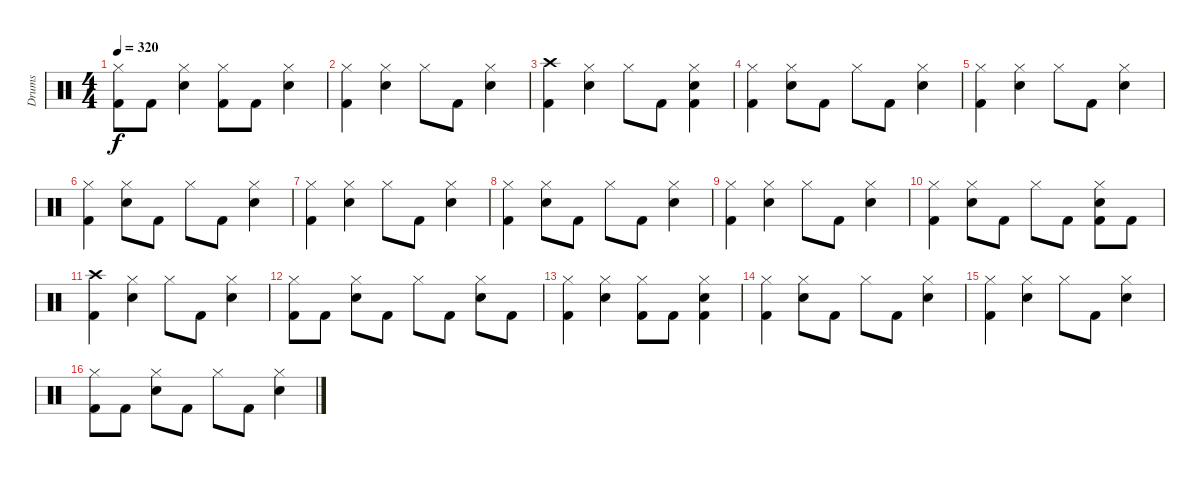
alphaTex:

\track ("Drums" "Drums") {instrument percussion}
\staff {score}
\articulation defaults
\ts (4 4)
\tempo 320
\clef neutral
\ks c
("Hi-Hat (closed)" "Kick (hit) 2").8{dy f} "Kick (hit) 2".8 ("Hi-Hat (closed)" "Snare (hit) 2").4 ("Hi-Hat (closed)" "Kick (hit) 2").8 "Kick (hit) 2".8 ("Hi-Hat (closed)" "Snare (hit) 2").4 |
("Hi-Hat (closed)" "Kick (hit) 2").4 ("Hi-Hat (closed)" "Snare (hit) 2").4 "Hi-Hat (closed)".8 "Kick (hit) 2".8 ("Snare (hit) 2" "Hi-Hat (closed)").4 |
("Kick (hit) 2" "Crash high (hit)").4 ("Snare (hit) 2" "Hi-Hat (closed)").4 "Hi-Hat (closed)".8 "Kick (hit) 2".8 ("Hi-Hat (closed)" "Kick (hit) 2" "Snare (hit) 2").4 |
("Kick (hit) 2" "Hi-Hat (closed)").4 ("Snare (hit) 2" "Hi-Hat (closed)").8 "Kick (hit) 2".8 "Hi-Hat (closed)".8 "Kick (hit) 2".8 ("Hi-Hat (closed)" "Snare (hit) 2").4 |
("Kick (hit) 2" "Hi-Hat (closed)").4 ("Snare (hit) 2" "Hi-Hat (closed)").4 "Hi-Hat (closed)".8 "Kick (hit) 2".8 ("Hi-Hat (closed)" "Snare (hit) 2").4 |
("Kick (hit) 2" "Hi-Hat (closed)").4 ("Hi-Hat (closed)" "Snare (hit) 2").8 "Kick (hit) 2".8 "Hi-Hat (closed)".8 "Kick (hit) 2".8 ("Snare (hit) 2" "Hi-Hat (closed)").4 |
("Kick (hit) 2" "Hi-Hat (closed)").4 ("Snare (hit) 2" "Hi-Hat (closed)").4 "Hi-Hat (closed)".8 "Kick (hit) 2".8 ("Snare (hit) 2" "Hi-Hat (closed)").4 |
("Kick (hit) 2" "Hi-Hat (closed)").4 ("Hi-Hat (closed)" "Snare (hit) 2").8 "Kick (hit) 2".8 "Hi-Hat (closed)".8 "Kick (hit) 2".8 ("Snare (hit) 2" "Hi-Hat (closed)").4 |
("Kick (hit) 2" "Hi-Hat (closed)").4 ("Snare (hit) 2" "Hi-Hat (closed)").4 "Hi-Hat (closed)".8 "Kick (hit) 2".8 ("Snare (hit) 2" "Hi-Hat (closed)").4 |
("Kick (hit) 2" "Hi-Hat (closed)").4 ("Snare (hit) 2" "Hi-Hat (closed)").8 "Kick (hit) 2".8 "Hi-Hat (closed)".8 "Kick (hit) 2".8 ("Hi-Hat (closed)" "Snare (hit) 2" "Kick (hit) 2").8 "Kick (hit) 2".8 |
("Kick (hit) 2" "Crash high (hit)").4 ("Snare (hit) 2" "Hi-Hat (closed)").4 "Hi-Hat (closed)".8 "Kick (hit) 2".8 ("Hi-Hat (closed)" "Snare (hit) 2").4 |
("Kick (hit) 2" "Hi-Hat (closed)").8 "Kick (hit) 2".8 ("Snare (hit) 2" "Hi-Hat (closed)").8 "Kick (hit) 2".8 "Hi-Hat (closed)".8 "Kick (hit) 2".8 ("Snare (hit) 2" "Hi-Hat (closed)").8 "Kick (hit) 2".8 |
("Kick (hit) 2" "Hi-Hat (closed)").4 ("Snare (hit) 2" "Hi-Hat (closed)").4 ("Hi-Hat (closed)" "Kick (hit) 2").8 "Kick (hit) 2".8 ("Snare (hit) 2" "Kick (hit) 2" "Hi-Hat (closed)").4 |
("Kick (hit) 2" "Hi-Hat (closed)").4 ("Hi-Hat (closed)" "Snare (hit) 2").8 "Kick (hit) 2".8 "Hi-Hat (closed)".8 "Kick (hit) 2".8 ("Hi-Hat (closed)" "Snare (hit) 2").4 |
("Kick (hit) 2" "Hi-Hat (closed)").4 ("Snare (hit) 2" "Hi-Hat (closed)").4 "Hi-Hat (closed)".8 "Kick (hit) 2".8 ("Snare (hit) 2" "Hi-Hat (closed)").4 |
("Kick (hit) 2" "Hi-Hat (closed)").8 "Kick (hit) 2".8 ("Snare (hit) 2" "Hi-Hat (closed)").8 "Kick (hit) 2".8 "Hi-Hat (closed)".8 "Kick (hit) 2".8 ("Hi-Hat (closed)" "Snare (hit) 2").4
